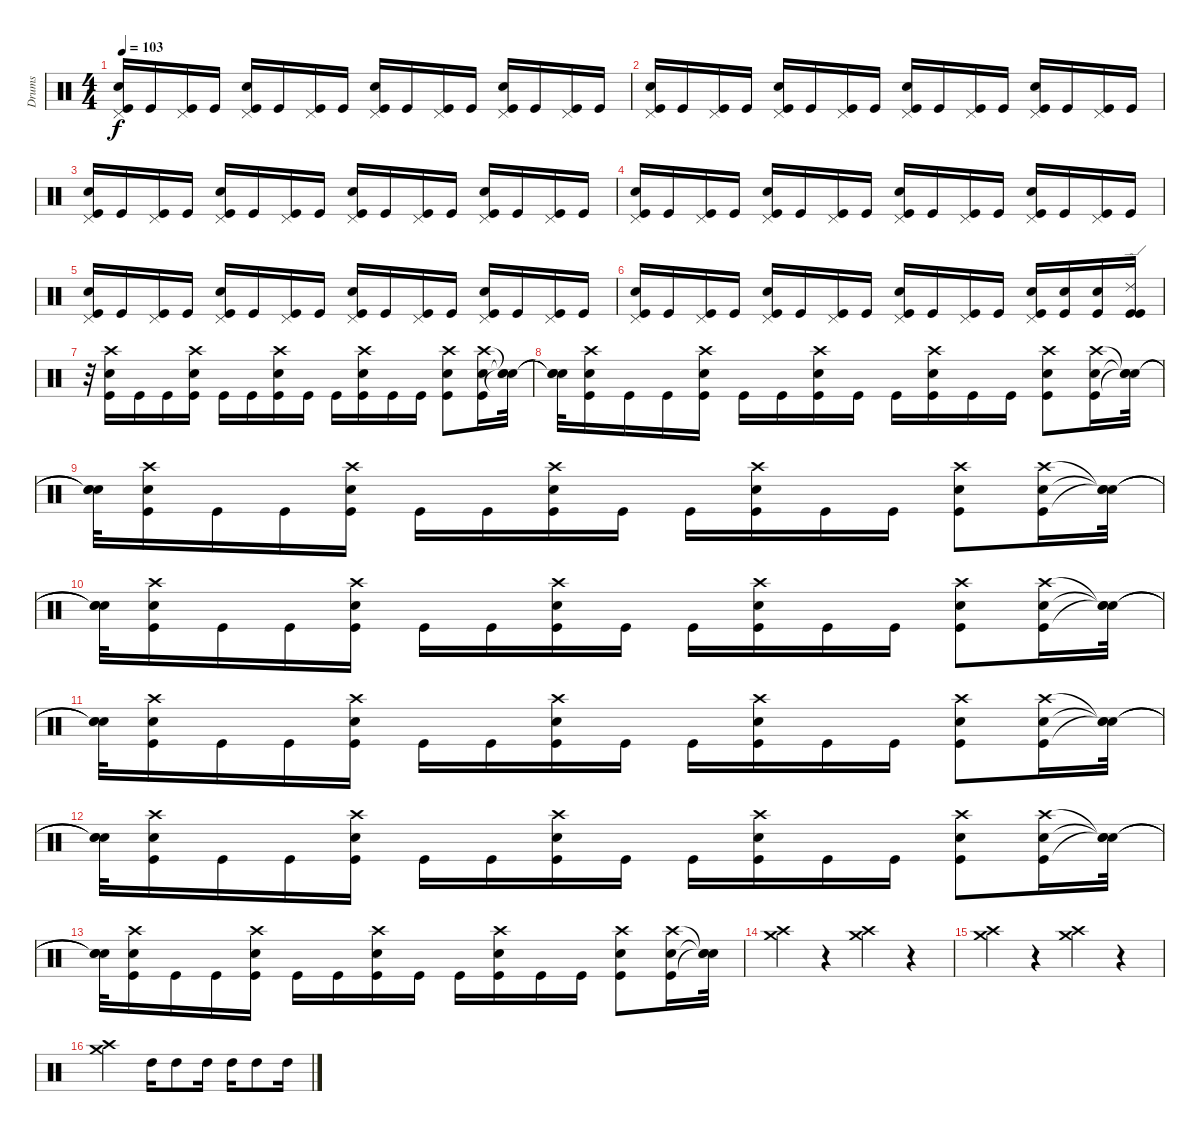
\track ("Drums" "Drums") {instrument percussion}
\staff {score}
\articulation defaults
\ts (4 4)
\tempo 103
\clef neutral
\ks c
("Pedal Hi-Hat (hit)" "Electric Snare (hit)" "Kick (hit)").16{dy f} "Kick (hit)".16 ("Pedal Hi-Hat (hit)" "Kick (hit)").16 "Kick (hit)".16 ("Pedal Hi-Hat (hit)" "Electric Snare (hit)" "Kick (hit)").16 "Kick (hit)".16 ("Pedal Hi-Hat (hit)" "Kick (hit)").16 "Kick (hit)".16 ("Pedal Hi-Hat (hit)" "Electric Snare (hit)" "Kick (hit)").16 "Kick (hit)".16 ("Pedal Hi-Hat (hit)" "Kick (hit)").16 "Kick (hit)".16 ("Pedal Hi-Hat (hit)" "Electric Snare (hit)" "Kick (hit)").16 "Kick (hit)".16 ("Pedal Hi-Hat (hit)" "Kick (hit)").16 "Kick (hit)".16 |
("Pedal Hi-Hat (hit)" "Electric Snare (hit)" "Kick (hit)").16 "Kick (hit)".16 ("Pedal Hi-Hat (hit)" "Kick (hit)").16 "Kick (hit)".16 ("Pedal Hi-Hat (hit)" "Electric Snare (hit)" "Kick (hit)").16 "Kick (hit)".16 ("Pedal Hi-Hat (hit)" "Kick (hit)").16 "Kick (hit)".16 ("Pedal Hi-Hat (hit)" "Electric Snare (hit)" "Kick (hit)").16 "Kick (hit)".16 ("Pedal Hi-Hat (hit)" "Kick (hit)").16 "Kick (hit)".16 ("Pedal Hi-Hat (hit)" "Electric Snare (hit)" "Kick (hit)").16 "Kick (hit)".16 ("Pedal Hi-Hat (hit)" "Kick (hit)").16 "Kick (hit)".16 |
("Pedal Hi-Hat (hit)" "Electric Snare (hit)" "Kick (hit)").16 "Kick (hit)".16 ("Pedal Hi-Hat (hit)" "Kick (hit)").16 "Kick (hit)".16 ("Pedal Hi-Hat (hit)" "Electric Snare (hit)" "Kick (hit)").16 "Kick (hit)".16 ("Pedal Hi-Hat (hit)" "Kick (hit)").16 "Kick (hit)".16 ("Pedal Hi-Hat (hit)" "Electric Snare (hit)" "Kick (hit)").16 "Kick (hit)".16 ("Pedal Hi-Hat (hit)" "Kick (hit)").16 "Kick (hit)".16 ("Pedal Hi-Hat (hit)" "Electric Snare (hit)" "Kick (hit)").16 "Kick (hit)".16 ("Pedal Hi-Hat (hit)" "Kick (hit)").16 "Kick (hit)".16 |
("Pedal Hi-Hat (hit)" "Electric Snare (hit)" "Kick (hit)").16 "Kick (hit)".16 ("Pedal Hi-Hat (hit)" "Kick (hit)").16 "Kick (hit)".16 ("Pedal Hi-Hat (hit)" "Electric Snare (hit)" "Kick (hit)").16 "Kick (hit)".16 ("Pedal Hi-Hat (hit)" "Kick (hit)").16 "Kick (hit)".16 ("Pedal Hi-Hat (hit)" "Electric Snare (hit)" "Kick (hit)").16 "Kick (hit)".16 ("Pedal Hi-Hat (hit)" "Kick (hit)").16 "Kick (hit)".16 ("Pedal Hi-Hat (hit)" "Electric Snare (hit)" "Kick (hit)").16 "Kick (hit)".16 ("Pedal Hi-Hat (hit)" "Kick (hit)").16 "Kick (hit)".16 |
("Pedal Hi-Hat (hit)" "Electric Snare (hit)" "Kick (hit)").16 "Kick (hit)".16 ("Pedal Hi-Hat (hit)" "Kick (hit)").16 "Kick (hit)".16 ("Pedal Hi-Hat (hit)" "Electric Snare (hit)" "Kick (hit)").16 "Kick (hit)".16 ("Pedal Hi-Hat (hit)" "Kick (hit)").16 "Kick (hit)".16 ("Pedal Hi-Hat (hit)" "Electric Snare (hit)" "Kick (hit)").16 "Kick (hit)".16 ("Pedal Hi-Hat (hit)" "Kick (hit)").16 "Kick (hit)".16 ("Pedal Hi-Hat (hit)" "Electric Snare (hit)" "Kick (hit)").16 "Kick (hit)".16 ("Pedal Hi-Hat (hit)" "Kick (hit)").16 "Kick (hit)".16 |
("Pedal Hi-Hat (hit)" "Electric Snare (hit)" "Kick (hit)").16 "Kick (hit)".16 ("Pedal Hi-Hat (hit)" "Kick (hit)").16 "Kick (hit)".16 ("Pedal Hi-Hat (hit)" "Electric Snare (hit)" "Kick (hit)").16 "Kick (hit)".16 ("Pedal Hi-Hat (hit)" "Kick (hit)").16 "Kick (hit)".16 ("Pedal Hi-Hat (hit)" "Electric Snare (hit)" "Kick (hit)").16 "Kick (hit)".16 ("Pedal Hi-Hat (hit)" "Kick (hit)").16 "Kick (hit)".16 ("Pedal Hi-Hat (hit)" "Electric Snare (hit)" "Kick (hit)").16 ("Electric Snare (hit)" "Kick (hit)").16 ("Electric Snare (hit)" "Kick (hit)").16 ("Ride (edge) 2" "Kick (hit)" "Kick (hit)").16 |
r.32 ("Crash high (hit)" "Electric Snare (hit)" "Kick (hit)").16 "Kick (hit)".16 "Kick (hit)".16 ("Crash high (hit)" "Electric Snare (hit)" "Kick (hit)").16 "Kick (hit)".16 "Kick (hit)".16 ("Crash high (hit)" "Electric Snare (hit)" "Kick (hit)").16 "Kick (hit)".16 "Kick (hit)".16 ("Crash high (hit)" "Electric Snare (hit)" "Kick (hit)").16 "Kick (hit)".16 "Kick (hit)".16 ("Crash high (hit)" "Electric Snare (hit)" "Kick (hit)").8 ("Crash high (hit)" "Electric Snare (hit)" "Kick (hit)").16 ("Snare (hit)"{t} "Snare (hit)"{t} "Snare (hit)"{t}).32 |
("Snare (hit)"{t} "Snare (hit)"{t} "Snare (hit)"{t}).32 ("Crash high (hit)" "Electric Snare (hit)" "Kick (hit)").16 "Kick (hit)".16 "Kick (hit)".16 ("Crash high (hit)" "Electric Snare (hit)" "Kick (hit)").16 "Kick (hit)".16 "Kick (hit)".16 ("Crash high (hit)" "Electric Snare (hit)" "Kick (hit)").16 "Kick (hit)".16 "Kick (hit)".16 ("Crash high (hit)" "Electric Snare (hit)" "Kick (hit)").16 "Kick (hit)".16 "Kick (hit)".16 ("Crash high (hit)" "Electric Snare (hit)" "Kick (hit)").8 ("Crash high (hit)" "Electric Snare (hit)" "Kick (hit)").16 ("Snare (hit)"{t} "Snare (hit)"{t} "Snare (hit)"{t}).32 |
("Snare (hit)"{t} "Snare (hit)"{t} "Snare (hit)"{t}).32 ("Crash high (hit)" "Electric Snare (hit)" "Kick (hit)").16 "Kick (hit)".16 "Kick (hit)".16 ("Crash high (hit)" "Electric Snare (hit)" "Kick (hit)").16 "Kick (hit)".16 "Kick (hit)".16 ("Crash high (hit)" "Electric Snare (hit)" "Kick (hit)").16 "Kick (hit)".16 "Kick (hit)".16 ("Crash high (hit)" "Electric Snare (hit)" "Kick (hit)").16 "Kick (hit)".16 "Kick (hit)".16 ("Crash high (hit)" "Electric Snare (hit)" "Kick (hit)").8 ("Crash high (hit)" "Electric Snare (hit)" "Kick (hit)").16 ("Snare (hit)"{t} "Snare (hit)"{t} "Snare (hit)"{t}).32 |
("Snare (hit)"{t} "Snare (hit)"{t} "Snare (hit)"{t}).32 ("Crash high (hit)" "Electric Snare (hit)" "Kick (hit)").16 "Kick (hit)".16 "Kick (hit)".16 ("Crash high (hit)" "Electric Snare (hit)" "Kick (hit)").16 "Kick (hit)".16 "Kick (hit)".16 ("Crash high (hit)" "Electric Snare (hit)" "Kick (hit)").16 "Kick (hit)".16 "Kick (hit)".16 ("Crash high (hit)" "Electric Snare (hit)" "Kick (hit)").16 "Kick (hit)".16 "Kick (hit)".16 ("Crash high (hit)" "Electric Snare (hit)" "Kick (hit)").8 ("Crash high (hit)" "Electric Snare (hit)" "Kick (hit)").16 ("Snare (hit)"{t} "Snare (hit)"{t} "Snare (hit)"{t}).32 |
("Snare (hit)"{t} "Snare (hit)"{t} "Snare (hit)"{t}).32 ("Crash high (hit)" "Electric Snare (hit)" "Kick (hit)").16 "Kick (hit)".16 "Kick (hit)".16 ("Crash high (hit)" "Electric Snare (hit)" "Kick (hit)").16 "Kick (hit)".16 "Kick (hit)".16 ("Crash high (hit)" "Electric Snare (hit)" "Kick (hit)").16 "Kick (hit)".16 "Kick (hit)".16 ("Crash high (hit)" "Electric Snare (hit)" "Kick (hit)").16 "Kick (hit)".16 "Kick (hit)".16 ("Crash high (hit)" "Electric Snare (hit)" "Kick (hit)").8 ("Crash high (hit)" "Electric Snare (hit)" "Kick (hit)").16 ("Snare (hit)"{t} "Snare (hit)"{t} "Snare (hit)"{t}).32 |
("Snare (hit)"{t} "Snare (hit)"{t} "Snare (hit)"{t}).32 ("Crash high (hit)" "Electric Snare (hit)" "Kick (hit)").16 "Kick (hit)".16 "Kick (hit)".16 ("Crash high (hit)" "Electric Snare (hit)" "Kick (hit)").16 "Kick (hit)".16 "Kick (hit)".16 ("Crash high (hit)" "Electric Snare (hit)" "Kick (hit)").16 "Kick (hit)".16 "Kick (hit)".16 ("Crash high (hit)" "Electric Snare (hit)" "Kick (hit)").16 "Kick (hit)".16 "Kick (hit)".16 ("Crash high (hit)" "Electric Snare (hit)" "Kick (hit)").8 ("Crash high (hit)" "Electric Snare (hit)" "Kick (hit)").16 ("Snare (hit)"{t} "Snare (hit)"{t} "Snare (hit)"{t}).32 |
("Snare (hit)"{t} "Snare (hit)"{t} "Snare (hit)"{t}).32 ("Crash high (hit)" "Electric Snare (hit)" "Kick (hit)").16 "Kick (hit)".16 "Kick (hit)".16 ("Crash high (hit)" "Electric Snare (hit)" "Kick (hit)").16 "Kick (hit)".16 "Kick (hit)".16 ("Crash high (hit)" "Electric Snare (hit)" "Kick (hit)").16 "Kick (hit)".16 "Kick (hit)".16 ("Crash high (hit)" "Electric Snare (hit)" "Kick (hit)").16 "Kick (hit)".16 "Kick (hit)".16 ("Crash high (hit)" "Electric Snare (hit)" "Kick (hit)").8 ("Crash high (hit)" "Electric Snare (hit)" "Kick (hit)").16 ("Snare (hit)"{t} "Snare (hit)"{t} "Snare (hit)"{t}).32 |
("Crash high (hit)" "Crash medium (hit)").4 r.4 ("Crash medium (hit)" "Crash high (hit)").4 r.4 |
("Crash medium (hit)" "Crash high (hit)").4 r.4 ("Crash high (hit)" "Crash medium (hit)").4 r.4 |
("Crash medium (hit)" "Crash high (hit)").2 "High Tom (hit)".16 "High Tom (hit)".8 "High Tom (hit)".16 "High Tom (hit)".16 "High Tom (hit)".8 "High Tom (hit)".16
